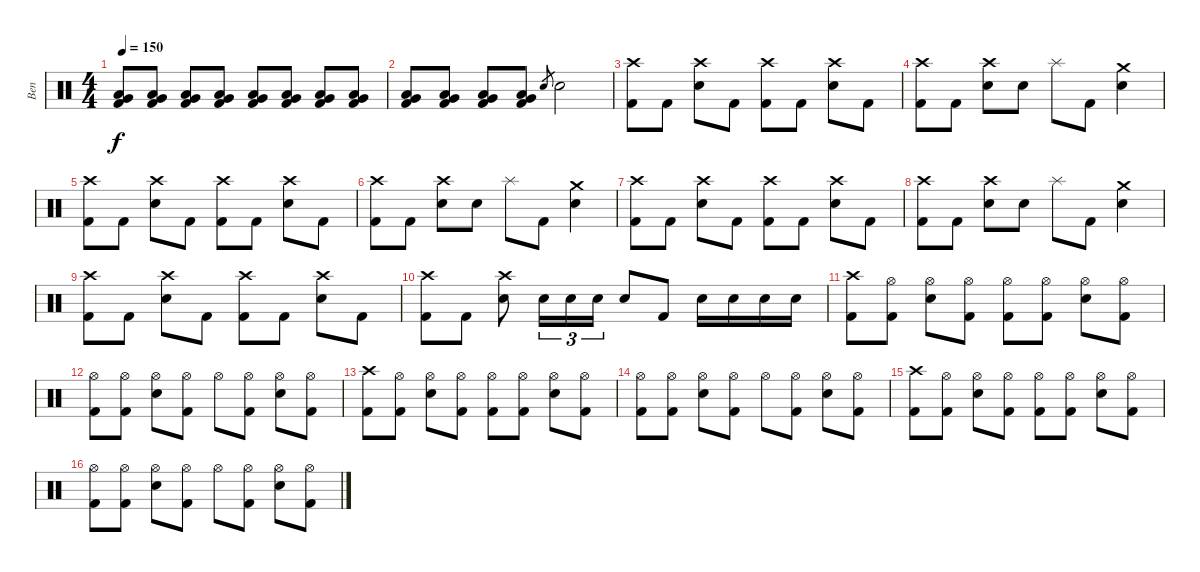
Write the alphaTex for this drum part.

\track ("Ben" "Ben") {instrument percussion}
\staff {score}
\articulation defaults
\ts (4 4)
\tempo 150
\clef neutral
\ks c
("Very Low Tom (hit)" "Low Floor Tom (hit)" "Kick (hit) 2").8{dy f} ("Very Low Tom (hit)" "Low Floor Tom (hit)" "Kick (hit) 2").8 ("Very Low Tom (hit)" "Low Floor Tom (hit)" "Kick (hit) 2").8 ("Very Low Tom (hit)" "Low Floor Tom (hit)" "Kick (hit) 2").8 ("Very Low Tom (hit)" "Low Floor Tom (hit)" "Kick (hit) 2").8 ("Very Low Tom (hit)" "Low Floor Tom (hit)" "Kick (hit) 2").8 ("Very Low Tom (hit)" "Low Floor Tom (hit)" "Kick (hit) 2").8 ("Very Low Tom (hit)" "Low Floor Tom (hit)" "Kick (hit) 2").8 |
("Very Low Tom (hit)" "Low Floor Tom (hit)" "Kick (hit) 2").8 ("Very Low Tom (hit)" "Low Floor Tom (hit)" "Kick (hit) 2").8 ("Very Low Tom (hit)" "Low Floor Tom (hit)" "Kick (hit) 2").8 ("Very Low Tom (hit)" "Low Floor Tom (hit)" "Kick (hit) 2").8 "Snare (hit) 2".8{gr} "Snare (hit) 2".2 |
("Crash high (hit)" "Kick (hit) 2").8 "Kick (hit) 2".8 ("Crash high (hit)" "Snare (hit) 2").8 "Kick (hit) 2".8 ("Crash high (hit)" "Kick (hit) 2").8 "Kick (hit) 2".8 ("Crash high (hit)" "Snare (hit) 2").8 "Kick (hit) 2".8 |
("Crash high (hit)" "Kick (hit) 2").8 "Kick (hit) 2".8 ("Crash high (hit)" "Snare (hit) 2").8 "Snare (hit) 2".8 "Splash (hit)".8 "Kick (hit) 2".8 ("Crash medium (hit)" "Snare (hit) 2").4 |
("Crash high (hit)" "Kick (hit) 2").8 "Kick (hit) 2".8 ("Crash high (hit)" "Snare (hit) 2").8 "Kick (hit) 2".8 ("Crash high (hit)" "Kick (hit) 2").8 "Kick (hit) 2".8 ("Crash high (hit)" "Snare (hit) 2").8 "Kick (hit) 2".8 |
("Crash high (hit)" "Kick (hit) 2").8 "Kick (hit) 2".8 ("Crash high (hit)" "Snare (hit) 2").8 "Snare (hit) 2".8 "Splash (hit)".8 "Kick (hit) 2".8 ("Crash medium (hit)" "Snare (hit) 2").4 |
("Crash high (hit)" "Kick (hit) 2").8 "Kick (hit) 2".8 ("Crash high (hit)" "Snare (hit) 2").8 "Kick (hit) 2".8 ("Crash high (hit)" "Kick (hit) 2").8 "Kick (hit) 2".8 ("Crash high (hit)" "Snare (hit) 2").8 "Kick (hit) 2".8 |
("Crash high (hit)" "Kick (hit) 2").8 "Kick (hit) 2".8 ("Crash high (hit)" "Snare (hit) 2").8 "Snare (hit) 2".8 "Splash (hit)".8 "Kick (hit) 2".8 ("Crash medium (hit)" "Snare (hit) 2").4 |
("Crash high (hit)" "Kick (hit) 2").8 "Kick (hit) 2".8 ("Crash high (hit)" "Snare (hit) 2").8 "Kick (hit) 2".8 ("Crash high (hit)" "Kick (hit) 2").8 "Kick (hit) 2".8 ("Crash high (hit)" "Snare (hit) 2").8 "Kick (hit) 2".8 |
("Crash high (hit)" "Kick (hit) 2").8 "Kick (hit) 2".8 ("Crash high (hit)" "Snare (hit) 2").8 "Snare (hit) 2".16{tu (3 2)} "Snare (hit) 2".16{tu (3 2)} "Snare (hit) 2".16{tu (3 2)} "Snare (hit) 2".8 "Kick (hit) 2".8 "Snare (hit) 2".16 "Snare (hit) 2".16 "Snare (hit) 2".16 "Snare (hit) 2".16 |
("Crash high (hit)" "Kick (hit) 2").8 ("Hi-Hat (open)" "Kick (hit) 2").8 ("Hi-Hat (open)" "Snare (hit) 2").8 ("Hi-Hat (open)" "Kick (hit) 2").8 ("Hi-Hat (open)" "Kick (hit) 2").8 ("Hi-Hat (open)" "Kick (hit) 2").8 ("Hi-Hat (open)" "Snare (hit) 2").8 ("Hi-Hat (open)" "Kick (hit) 2").8 |
("Hi-Hat (open)" "Kick (hit) 2").8 ("Hi-Hat (open)" "Kick (hit) 2").8 ("Hi-Hat (open)" "Snare (hit) 2").8 ("Hi-Hat (open)" "Kick (hit) 2").8 "Hi-Hat (open)".8 ("Hi-Hat (open)" "Kick (hit) 2").8 ("Hi-Hat (open)" "Snare (hit) 2").8 ("Hi-Hat (open)" "Kick (hit) 2").8 |
("Crash high (hit)" "Kick (hit) 2").8 ("Hi-Hat (open)" "Kick (hit) 2").8 ("Hi-Hat (open)" "Snare (hit) 2").8 ("Hi-Hat (open)" "Kick (hit) 2").8 ("Hi-Hat (open)" "Kick (hit) 2").8 ("Hi-Hat (open)" "Kick (hit) 2").8 ("Hi-Hat (open)" "Snare (hit) 2").8 ("Hi-Hat (open)" "Kick (hit) 2").8 |
("Hi-Hat (open)" "Kick (hit) 2").8 ("Hi-Hat (open)" "Kick (hit) 2").8 ("Hi-Hat (open)" "Snare (hit) 2").8 ("Hi-Hat (open)" "Kick (hit) 2").8 "Hi-Hat (open)".8 ("Hi-Hat (open)" "Kick (hit) 2").8 ("Hi-Hat (open)" "Snare (hit) 2").8 ("Hi-Hat (open)" "Kick (hit) 2").8 |
("Crash high (hit)" "Kick (hit) 2").8 ("Hi-Hat (open)" "Kick (hit) 2").8 ("Hi-Hat (open)" "Snare (hit) 2").8 ("Hi-Hat (open)" "Kick (hit) 2").8 ("Hi-Hat (open)" "Kick (hit) 2").8 ("Hi-Hat (open)" "Kick (hit) 2").8 ("Hi-Hat (open)" "Snare (hit) 2").8 ("Hi-Hat (open)" "Kick (hit) 2").8 |
("Hi-Hat (open)" "Kick (hit) 2").8 ("Hi-Hat (open)" "Kick (hit) 2").8 ("Hi-Hat (open)" "Snare (hit) 2").8 ("Hi-Hat (open)" "Kick (hit) 2").8 "Hi-Hat (open)".8 ("Hi-Hat (open)" "Kick (hit) 2").8 ("Hi-Hat (open)" "Snare (hit) 2").8 ("Hi-Hat (open)" "Kick (hit) 2").8
